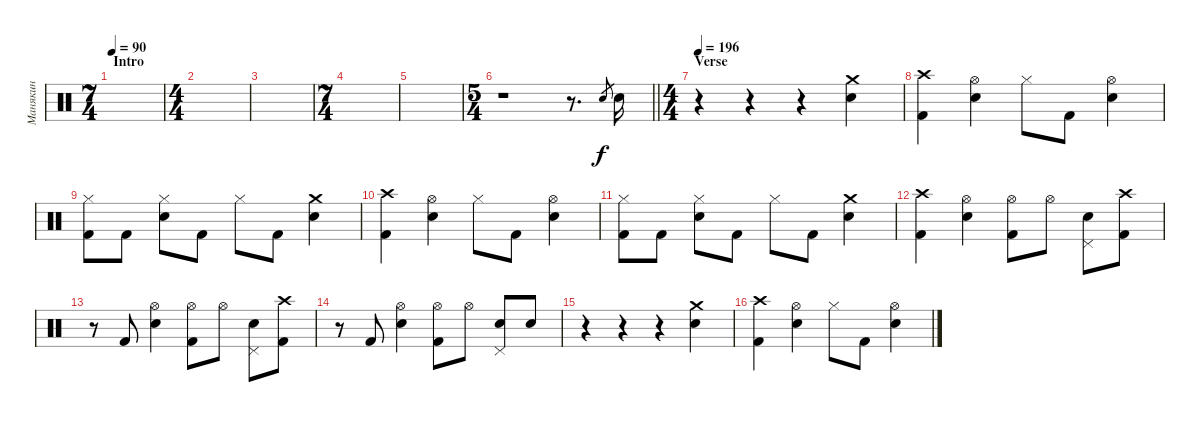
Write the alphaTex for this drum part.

\track ("Манякин" "Манякин") {instrument percussion}
\staff {score}
\articulation defaults
\ts (7 4)
\section ("" "Intro")
\tempo 90
\clef neutral
\ks c
|
\ts (4 4)
|
|
\ts (7 4)
|
|
\ts (5 4)
\barLineRight lightlight
r.1 r.8{d} "Electric Snare (hit)".8{gr} "Electric Snare (hit)".16 |
\ts (4 4)
\section ("" "Verse")
\tempo 196
r.4 r.4 r.4 ("Crash medium (hit)" "Electric Snare (hit)").4 |
("Crash high (hit)" "Kick (hit) 2").4 ("Hi-Hat (open)" "Electric Snare (hit)").4 "Hi-Hat (closed)".8 "Kick (hit) 2".8 ("Hi-Hat (open)" "Electric Snare (hit)").4 |
("Hi-Hat (closed)" "Kick (hit) 2").8 "Kick (hit) 2".8 ("Hi-Hat (closed)" "Electric Snare (hit)").8 "Kick (hit) 2".8 "Hi-Hat (closed)".8 "Kick (hit) 2".8 ("Crash medium (hit)" "Electric Snare (hit)").4 |
("Crash high (hit)" "Kick (hit) 2").4 ("Hi-Hat (open)" "Electric Snare (hit)").4 "Hi-Hat (closed)".8 "Kick (hit) 2".8 ("Hi-Hat (open)" "Electric Snare (hit)").4 |
("Hi-Hat (closed)" "Kick (hit) 2").8 "Kick (hit) 2".8 ("Hi-Hat (closed)" "Electric Snare (hit)").8 "Kick (hit) 2".8 "Hi-Hat (closed)".8 "Kick (hit) 2".8 ("Crash medium (hit)" "Electric Snare (hit)").4 |
("Crash high (hit)" "Kick (hit) 2").4 ("Hi-Hat (open)" "Electric Snare (hit)").4 ("Hi-Hat (open)" "Kick (hit) 2").8 "Hi-Hat (open)".8 ("Electric Snare (hit)" "Pedal Hi-Hat (hit)").8 ("Crash high (hit)" "Kick (hit) 2").8 |
r.8 "Kick (hit) 2".8 ("Hi-Hat (open)" "Electric Snare (hit)").4 ("Hi-Hat (open)" "Kick (hit) 2").8 "Hi-Hat (open)".8 ("Electric Snare (hit)" "Pedal Hi-Hat (hit)").8 ("Crash high (hit)" "Kick (hit) 2").8 |
r.8 "Kick (hit) 2".8 ("Hi-Hat (open)" "Electric Snare (hit)").4 ("Hi-Hat (open)" "Kick (hit) 2").8 "Hi-Hat (open)".8 ("Electric Snare (hit)" "Pedal Hi-Hat (hit)").8 "Electric Snare (hit)".8 |
r.4 r.4 r.4 ("Crash medium (hit)" "Electric Snare (hit)").4 |
("Crash high (hit)" "Kick (hit) 2").4 ("Hi-Hat (open)" "Electric Snare (hit)").4 "Hi-Hat (closed)".8 "Kick (hit) 2".8 ("Hi-Hat (open)" "Electric Snare (hit)").4
